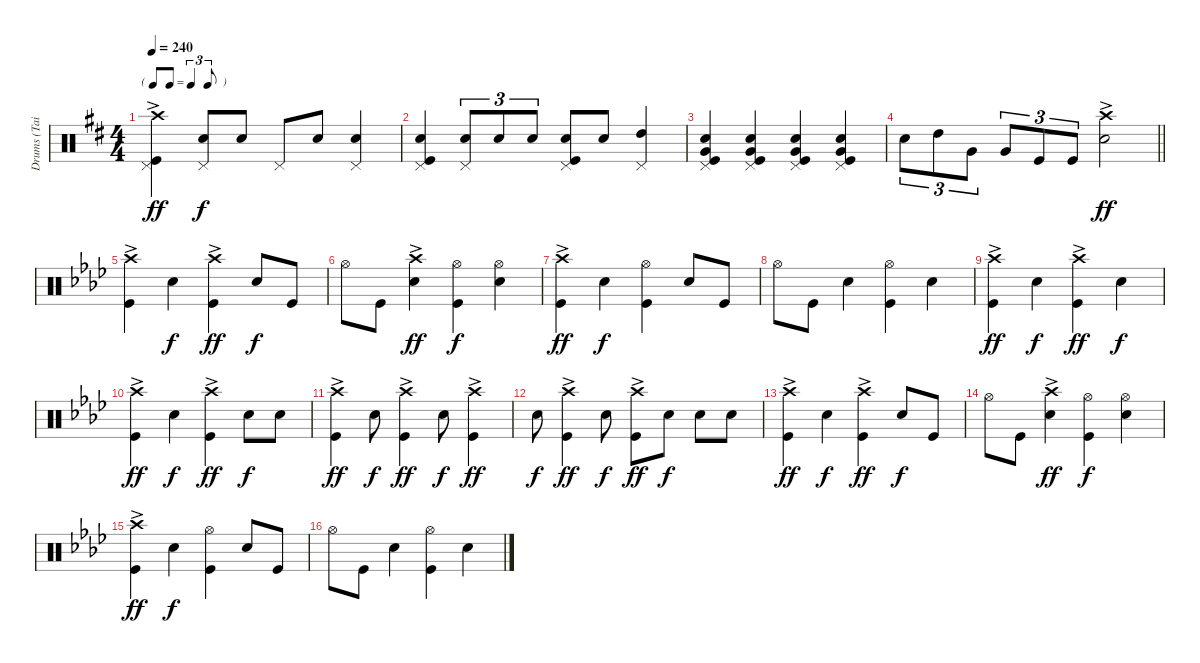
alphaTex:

\track ("Drums (Tainaka Ritsu)" "Drums (Tai") {instrument percussion}
\staff {score}
\articulation defaults
\ts (4 4)
\tf triplet8th
\tempo 240
\clef neutral
\ks d
("Crash high (hit)"{ac} "Kick (hit)" "Pedal Hi-Hat (hit)").4{dy ff} ("Pedal Hi-Hat (hit)" "Snare (hit) 2").8{dy f} "Snare (hit) 2".8 "Pedal Hi-Hat (hit)".8 "Snare (hit) 2".8 ("Snare (hit) 2" "Pedal Hi-Hat (hit)").4 |
("Snare (hit) 2" "Kick (hit)" "Pedal Hi-Hat (hit)").4 ("Snare (hit) 2" "Pedal Hi-Hat (hit)").8{tu (3 2)} "Snare (hit) 2".8{tu (3 2)} "Snare (hit) 2".8{tu (3 2)} ("Snare (hit) 2" "Kick (hit)" "Pedal Hi-Hat (hit)").8 "Snare (hit) 2".8 ("High Tom (hit)" "Pedal Hi-Hat (hit)").4 |
("Pedal Hi-Hat (hit)" "Snare (hit) 2" "Very Low Tom (hit)" "Kick (hit)").4 ("Snare (hit) 2" "Very Low Tom (hit)" "Kick (hit)" "Pedal Hi-Hat (hit)").4 ("Snare (hit) 2" "Kick (hit)" "Pedal Hi-Hat (hit)" "Very Low Tom (hit)").4 ("Snare (hit) 2" "Kick (hit)" "Pedal Hi-Hat (hit)" "Very Low Tom (hit)").4 |
\barLineRight lightlight "Snare (hit) 2".8{tu (3 2)} "High Tom (hit)".8{tu (3 2)} "Very Low Tom (hit)".8{tu (3 2)} "Very Low Tom (hit)".8{tu (3 2)} "Kick (hit)".8{tu (3 2)} "Kick (hit)".8{tu (3 2)}
("Snare (hit) 2" "Crash high (hit)"{ac}).2{dy ff} |
\ks ab
("Crash high (hit)"{ac} "Kick (hit)").4 "Snare (hit) 2".4{dy f} ("Crash high (hit)"{ac} "Kick (hit)").4{dy ff} "Snare (hit) 2".8{dy f} "Kick (hit)".8 |
"Hi-Hat (open)".8 "Kick (hit)".8 ("Crash high (hit)"{ac} "Snare (hit) 2").4{dy ff} ("Kick (hit)" "Hi-Hat (open)").4{dy f} ("Hi-Hat (open)" "Snare (hit) 2").4 |
("Crash high (hit)"{ac} "Kick (hit)").4{dy ff} "Snare (hit) 2".4{dy f} ("Hi-Hat (open)" "Kick (hit)").4 "Snare (hit) 2".8 "Kick (hit)".8 |
"Hi-Hat (open)".8 "Kick (hit)".8 "Snare (hit) 2".4 ("Hi-Hat (open)" "Kick (hit)").4 "Snare (hit) 2".4 |
("Crash high (hit)"{ac} "Kick (hit)").4{dy ff} "Snare (hit) 2".4{dy f} ("Crash high (hit)"{ac} "Kick (hit)").4{dy ff} "Snare (hit) 2".4{dy f} |
("Crash high (hit)"{ac} "Kick (hit)").4{dy ff} "Snare (hit) 2".4{dy f} ("Crash high (hit)"{ac} "Kick (hit)").4{dy ff} "Snare (hit) 2".8{dy f} "Snare (hit) 2".8 |
("Crash high (hit)"{ac} "Kick (hit)").4{dy ff} "Snare (hit) 2".8{dy f} ("Kick (hit)" "Crash high (hit)"{ac}).4{dy ff} "Snare (hit) 2".8{dy f} ("Kick (hit)" "Crash high (hit)"{ac}).4{dy ff} |
"Snare (hit) 2".8{dy f} ("Kick (hit)" "Crash high (hit)"{ac}).4{dy ff} "Snare (hit) 2".8{dy f} ("Kick (hit)" "Crash high (hit)"{ac}).8{dy ff} "Snare (hit) 2".8{dy f} "Snare (hit) 2".8 "Snare (hit) 2".8 |
("Crash high (hit)"{ac} "Kick (hit)").4{dy ff} "Snare (hit) 2".4{dy f} ("Crash high (hit)"{ac} "Kick (hit)").4{dy ff} "Snare (hit) 2".8{dy f} "Kick (hit)".8 |
"Hi-Hat (open)".8 "Kick (hit)".8 ("Crash high (hit)"{ac} "Snare (hit) 2").4{dy ff} ("Kick (hit)" "Hi-Hat (open)").4{dy f} ("Hi-Hat (open)" "Snare (hit) 2").4 |
("Crash high (hit)"{ac} "Kick (hit)").4{dy ff} "Snare (hit) 2".4{dy f} ("Hi-Hat (open)" "Kick (hit)").4 "Snare (hit) 2".8 "Kick (hit)".8 |
"Hi-Hat (open)".8 "Kick (hit)".8 "Snare (hit) 2".4 ("Hi-Hat (open)" "Kick (hit)").4 "Snare (hit) 2".4
